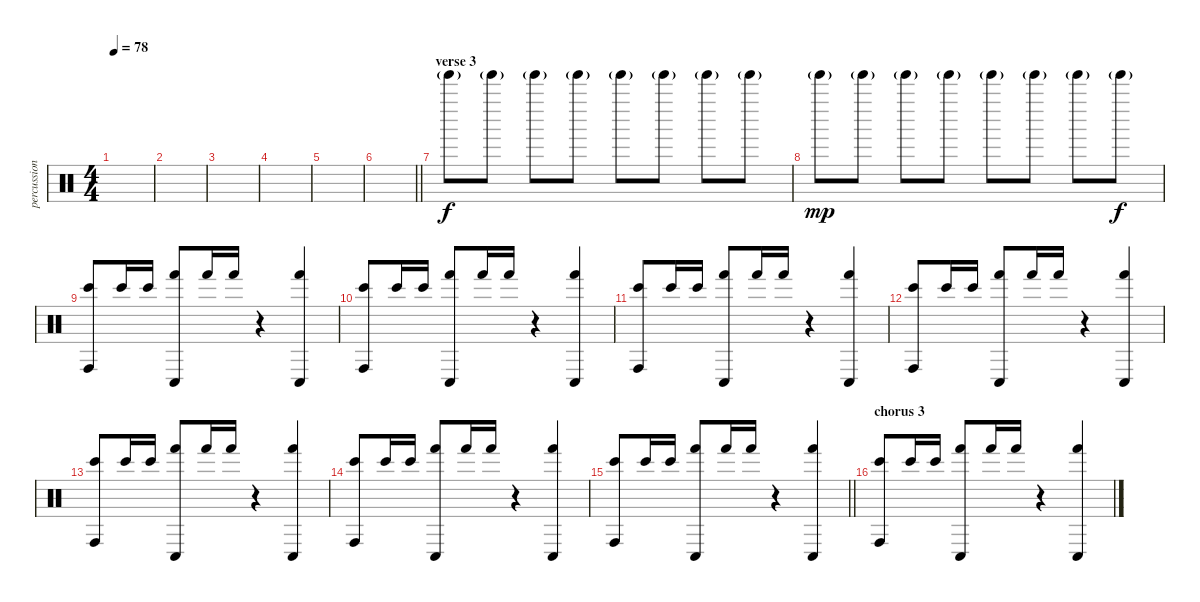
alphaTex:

\track ("percussion" "percussion") {instrument percussion}
\staff {score}
\articulation defaults
\ts (4 4)
\tempo 78
\clef neutral
\ks c
|
|
|
|
|
\barLineRight lightlight
|
\section ("" "verse 3")
"Tinkle Bell (hit)"{g}.8{volume 7} "Tinkle Bell (hit)"{g}.8 "Tinkle Bell (hit)"{g}.8 "Tinkle Bell (hit)"{g}.8 "Tinkle Bell (hit)"{g}.8 "Tinkle Bell (hit)"{g}.8 "Tinkle Bell (hit)"{g}.8 "Tinkle Bell (hit)"{g}.8{dy f} |
"Tinkle Bell (hit)"{g}.8{dy mp} "Tinkle Bell (hit)"{g}.8 "Tinkle Bell (hit)"{g}.8 "Tinkle Bell (hit)"{g}.8 "Tinkle Bell (hit)"{g}.8 "Tinkle Bell (hit)"{g}.8 "Tinkle Bell (hit)"{g}.8 "Tinkle Bell (hit)"{g}.8{dy f} |
("Conga high (hit)" "Bongo High (hit)").8{volume 13} "Bongo High (hit)".16 "Bongo High (hit)".16 ("Conga low (hit)" "Hand (hit)").8 "Hand (hit)".16 "Hand (hit)".16 r.4 ("Conga low (hit)" "Hand (hit)").4 |
("Conga high (hit)" "Bongo High (hit)").8 "Bongo High (hit)".16 "Bongo High (hit)".16 ("Conga low (hit)" "Hand (hit)").8 "Hand (hit)".16 "Hand (hit)".16 r.4 ("Conga low (hit)" "Hand (hit)").4 |
("Conga high (hit)" "Bongo High (hit)").8 "Bongo High (hit)".16 "Bongo High (hit)".16 ("Conga low (hit)" "Hand (hit)").8 "Hand (hit)".16 "Hand (hit)".16 r.4 ("Conga low (hit)" "Hand (hit)").4 |
("Conga high (hit)" "Bongo High (hit)").8 "Bongo High (hit)".16 "Bongo High (hit)".16 ("Conga low (hit)" "Hand (hit)").8 "Hand (hit)".16 "Hand (hit)".16 r.4 ("Conga low (hit)" "Hand (hit)").4 |
("Conga high (hit)" "Bongo High (hit)").8 "Bongo High (hit)".16 "Bongo High (hit)".16 ("Conga low (hit)" "Hand (hit)").8 "Hand (hit)".16 "Hand (hit)".16 r.4 ("Conga low (hit)" "Hand (hit)").4 |
("Conga high (hit)" "Bongo High (hit)").8 "Bongo High (hit)".16 "Bongo High (hit)".16 ("Conga low (hit)" "Hand (hit)").8 "Hand (hit)".16 "Hand (hit)".16 r.4 ("Conga low (hit)" "Hand (hit)").4 |
\barLineRight lightlight
("Conga high (hit)" "Bongo High (hit)").8 "Bongo High (hit)".16 "Bongo High (hit)".16 ("Conga low (hit)" "Hand (hit)").8 "Hand (hit)".16 "Hand (hit)".16 r.4 ("Conga low (hit)" "Hand (hit)").4 |
\section ("" "chorus 3")
("Conga high (hit)" "Bongo High (hit)").8 "Bongo High (hit)".16 "Bongo High (hit)".16 ("Conga low (hit)" "Hand (hit)").8 "Hand (hit)".16 "Hand (hit)".16 r.4 ("Conga low (hit)" "Hand (hit)").4
